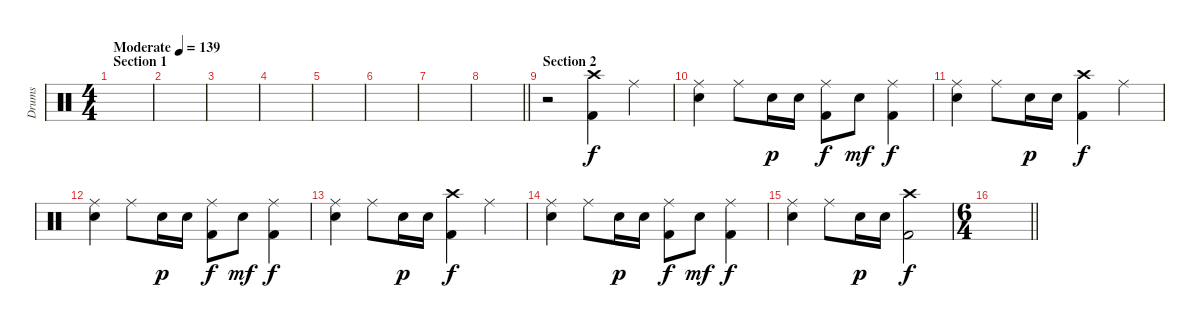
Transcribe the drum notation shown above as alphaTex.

\track ("Drums" "Drums") {instrument percussion}
\staff {score}
\articulation defaults
\ts (4 4)
\section ("" "Section 1")
\tempo (139 "Moderate")
\clef neutral
\ks c
|
|
|
|
|
|
|
\barLineRight lightlight
|
\section ("" "Section 2")
r.2 ("Crash high (hit)" "Kick (hit) 2").4 "Ride (middle)".4 |
("Ride (middle)" "Electric Snare (hit)").4 "Ride (middle)".8 "Electric Snare (hit)".16{dy p} "Electric Snare (hit)".16 ("Ride (middle)" "Kick (hit) 2").8{dy f} "Electric Snare (hit)".8{dy mf} ("Ride (middle)" "Kick (hit) 2").4{dy f} |
("Ride (middle)" "Electric Snare (hit)").4 "Ride (middle)".8 "Electric Snare (hit)".16{dy p} "Electric Snare (hit)".16 ("Crash high (hit)" "Kick (hit) 2").4{dy f} "Ride (middle)".4 |
("Ride (middle)" "Electric Snare (hit)").4 "Ride (middle)".8 "Electric Snare (hit)".16{dy p} "Electric Snare (hit)".16 ("Ride (middle)" "Kick (hit) 2").8{dy f} "Electric Snare (hit)".8{dy mf} ("Ride (middle)" "Kick (hit) 2").4{dy f} |
("Ride (middle)" "Electric Snare (hit)").4 "Ride (middle)".8 "Electric Snare (hit)".16{dy p} "Electric Snare (hit)".16 ("Crash high (hit)" "Kick (hit) 2").4{dy f} "Ride (middle)".4 |
("Ride (middle)" "Electric Snare (hit)").4 "Ride (middle)".8 "Electric Snare (hit)".16{dy p} "Electric Snare (hit)".16 ("Ride (middle)" "Kick (hit) 2").8{dy f} "Electric Snare (hit)".8{dy mf} ("Ride (middle)" "Kick (hit) 2").4{dy f} |
("Ride (middle)" "Electric Snare (hit)").4 "Ride (middle)".8 "Electric Snare (hit)".16{dy p} "Electric Snare (hit)".16 ("Crash high (hit)" "Kick (hit) 2").2{dy f} |
\ts (6 4)
\barLineRight lightlight
